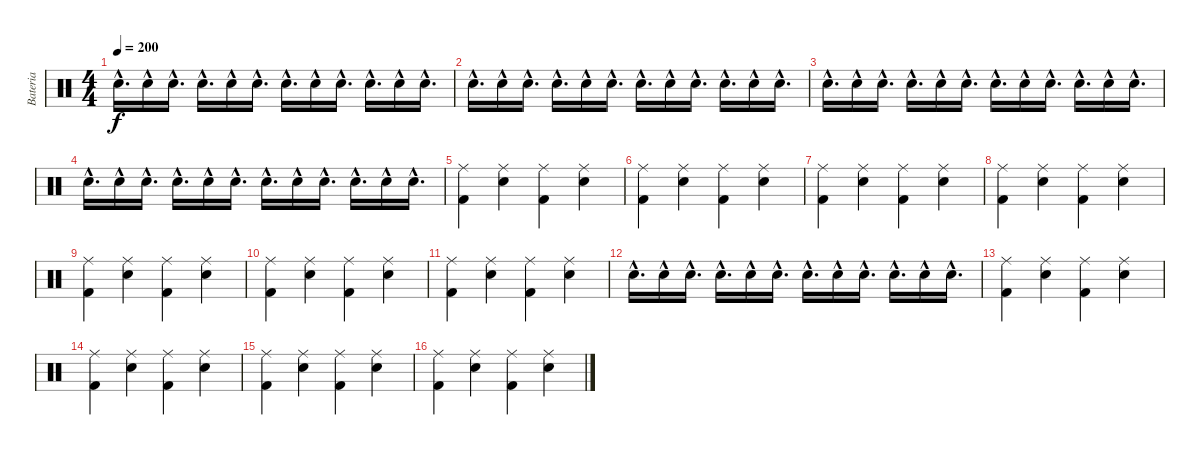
\track ("Bateria" "Bateria") {instrument percussion}
\staff {score}
\articulation defaults
\ts (4 4)
\tempo 200
\clef neutral
\ks c "Snare (hit) 2"{hac}.16{d dy f} "Snare (hit) 2"{hac}.16 "Snare (hit) 2"{hac}.16{d} "Snare (hit) 2"{hac}.16{d} "Snare (hit) 2"{hac}.16 "Snare (hit) 2"{hac}.16{d} "Snare (hit) 2"{hac}.16{d} "Snare (hit) 2"{hac}.16 "Snare (hit) 2"{hac}.16{d} "Snare (hit) 2"{hac}.16{d} "Snare (hit) 2"{hac}.16 "Snare (hit) 2"{hac}.16{d}
|
"Snare (hit) 2"{hac}.16{d} "Snare (hit) 2"{hac}.16 "Snare (hit) 2"{hac}.16{d} "Snare (hit) 2"{hac}.16{d} "Snare (hit) 2"{hac}.16 "Snare (hit) 2"{hac}.16{d} "Snare (hit) 2"{hac}.16{d} "Snare (hit) 2"{hac}.16 "Snare (hit) 2"{hac}.16{d} "Snare (hit) 2"{hac}.16{d} "Snare (hit) 2"{hac}.16 "Snare (hit) 2"{hac}.16{d} |
"Snare (hit) 2"{hac}.16{d} "Snare (hit) 2"{hac}.16 "Snare (hit) 2"{hac}.16{d} "Snare (hit) 2"{hac}.16{d} "Snare (hit) 2"{hac}.16 "Snare (hit) 2"{hac}.16{d} "Snare (hit) 2"{hac}.16{d} "Snare (hit) 2"{hac}.16 "Snare (hit) 2"{hac}.16{d} "Snare (hit) 2"{hac}.16{d} "Snare (hit) 2"{hac}.16 "Snare (hit) 2"{hac}.16{d} |
"Snare (hit) 2"{hac}.16{d} "Snare (hit) 2"{hac}.16 "Snare (hit) 2"{hac}.16{d} "Snare (hit) 2"{hac}.16{d} "Snare (hit) 2"{hac}.16 "Snare (hit) 2"{hac}.16{d} "Snare (hit) 2"{hac}.16{d} "Snare (hit) 2"{hac}.16 "Snare (hit) 2"{hac}.16{d} "Snare (hit) 2"{hac}.16{d} "Snare (hit) 2"{hac}.16 "Snare (hit) 2"{hac}.16{d} |
("Ride (middle)" "Kick (hit) 2").4 ("Ride (middle)" "Snare (hit) 2").4 ("Ride (middle)" "Kick (hit) 2").4 ("Ride (middle)" "Snare (hit) 2").4 |
("Ride (middle)" "Kick (hit) 2").4 ("Ride (middle)" "Snare (hit) 2").4 ("Ride (middle)" "Kick (hit) 2").4 ("Ride (middle)" "Snare (hit) 2").4 |
("Ride (middle)" "Kick (hit) 2").4 ("Snare (hit) 2" "Ride (middle)").4 ("Kick (hit) 2" "Ride (middle)").4 ("Snare (hit) 2" "Ride (middle)").4 |
("Ride (middle)" "Kick (hit) 2").4 ("Ride (middle)" "Snare (hit) 2").4 ("Ride (middle)" "Kick (hit) 2").4 ("Snare (hit) 2" "Ride (middle)").4 |
("Ride (middle)" "Kick (hit) 2").4 ("Ride (middle)" "Snare (hit) 2").4 ("Ride (middle)" "Kick (hit) 2").4 ("Ride (middle)" "Snare (hit) 2").4 |
("Ride (middle)" "Kick (hit) 2").4 ("Snare (hit) 2" "Ride (middle)").4 ("Kick (hit) 2" "Ride (middle)").4 ("Snare (hit) 2" "Ride (middle)").4 |
("Ride (middle)" "Kick (hit) 2").4 ("Snare (hit) 2" "Ride (middle)").4 ("Ride (middle)" "Kick (hit) 2").4 ("Ride (middle)" "Snare (hit) 2").4 |
"Snare (hit) 2"{hac}.16{d} "Snare (hit) 2"{hac}.16 "Snare (hit) 2"{hac}.16{d} "Snare (hit) 2"{hac}.16{d} "Snare (hit) 2"{hac}.16 "Snare (hit) 2"{hac}.16{d} "Snare (hit) 2"{hac}.16{d} "Snare (hit) 2"{hac}.16 "Snare (hit) 2"{hac}.16{d} "Snare (hit) 2"{hac}.16{d} "Snare (hit) 2"{hac}.16 "Snare (hit) 2"{hac}.16{d} |
("Ride (middle)" "Kick (hit) 2").4 ("Ride (middle)" "Snare (hit) 2").4 ("Ride (middle)" "Kick (hit) 2").4 ("Ride (middle)" "Snare (hit) 2").4 |
("Ride (middle)" "Kick (hit) 2").4 ("Ride (middle)" "Snare (hit) 2").4 ("Ride (middle)" "Kick (hit) 2").4 ("Ride (middle)" "Snare (hit) 2").4 |
("Ride (middle)" "Kick (hit) 2").4 ("Ride (middle)" "Snare (hit) 2").4 ("Ride (middle)" "Kick (hit) 2").4 ("Ride (middle)" "Snare (hit) 2").4 |
("Ride (middle)" "Kick (hit) 2").4 ("Ride (middle)" "Snare (hit) 2").4 ("Ride (middle)" "Kick (hit) 2").4 ("Ride (middle)" "Snare (hit) 2").4
